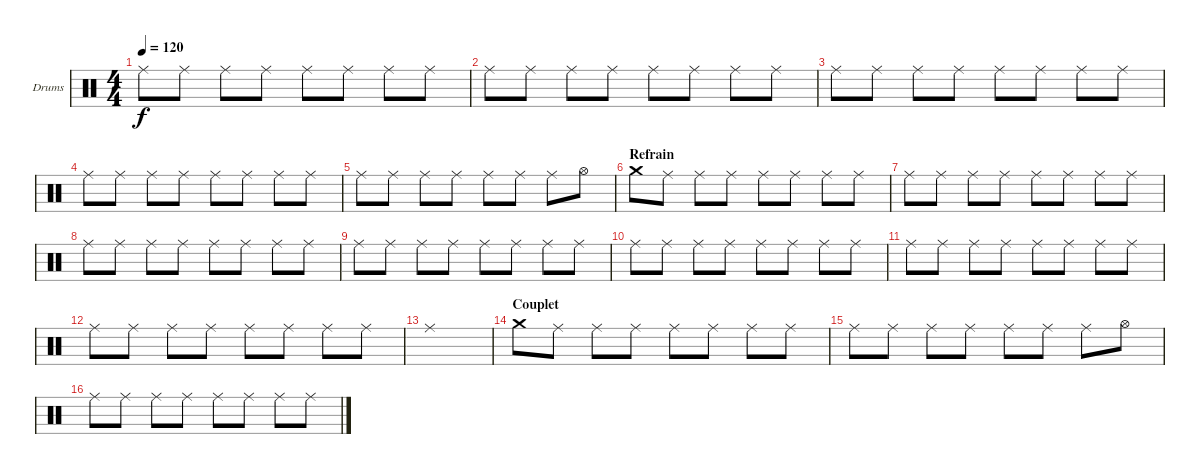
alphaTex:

\defaultSystemsLayout 4
\bracketExtendMode groupsimilarinstruments
\firstSystemTrackNameOrientation horizontal
\otherSystemsTrackNameOrientation horizontal
\track ("Drumkit" "Drums") {multiBarRest instrument percussion}
\staff {score}
\articulation defaults
\ts (4 4)
\tempo 120
\clef neutral
\ks c "Ride (middle)".8{dy f} "Ride (middle)".8 "Ride (middle)".8 "Ride (middle)".8 "Ride (middle)".8 "Ride (middle)".8 "Ride (middle)".8 "Ride (middle)".8
|
"Ride (middle)".8 "Ride (middle)".8 "Ride (middle)".8 "Ride (middle)".8 "Ride (middle)".8 "Ride (middle)".8 "Ride (middle)".8 "Ride (middle)".8 |
"Ride (middle)".8 "Ride (middle)".8 "Ride (middle)".8 "Ride (middle)".8 "Ride (middle)".8 "Ride (middle)".8 "Ride (middle)".8 "Ride (middle)".8 |
"Ride (middle)".8 "Ride (middle)".8 "Ride (middle)".8 "Ride (middle)".8 "Ride (middle)".8 "Ride (middle)".8 "Ride (middle)".8 "Ride (middle)".8 |
"Ride (middle)".8 "Ride (middle)".8 "Ride (middle)".8 "Ride (middle)".8 "Ride (middle)".8 "Ride (middle)".8 "Ride (middle)".8 "Hi-Hat (open)".8 |
\section ("" "Refrain")
"Crash medium (hit)".8 "Ride (middle)".8 "Ride (middle)".8 "Ride (middle)".8 "Ride (middle)".8 "Ride (middle)".8 "Ride (middle)".8 "Ride (middle)".8 |
"Ride (middle)".8 "Ride (middle)".8 "Ride (middle)".8 "Ride (middle)".8 "Ride (middle)".8 "Ride (middle)".8 "Ride (middle)".8 "Ride (middle)".8 |
"Ride (middle)".8 "Ride (middle)".8 "Ride (middle)".8 "Ride (middle)".8 "Ride (middle)".8 "Ride (middle)".8 "Ride (middle)".8 "Ride (middle)".8 |
"Ride (middle)".8 "Ride (middle)".8 "Ride (middle)".8 "Ride (middle)".8 "Ride (middle)".8 "Ride (middle)".8 "Ride (middle)".8 "Ride (middle)".8 |
"Ride (middle)".8 "Ride (middle)".8 "Ride (middle)".8 "Ride (middle)".8 "Ride (middle)".8 "Ride (middle)".8 "Ride (middle)".8 "Ride (middle)".8 |
"Ride (middle)".8 "Ride (middle)".8 "Ride (middle)".8 "Ride (middle)".8 "Ride (middle)".8 "Ride (middle)".8 "Ride (middle)".8 "Ride (middle)".8 |
"Ride (middle)".8 "Ride (middle)".8 "Ride (middle)".8 "Ride (middle)".8 "Ride (middle)".8 "Ride (middle)".8 "Ride (middle)".8 "Ride (middle)".8 |
"Ride (middle)".1 |
\section ("" "Couplet")
"Crash medium (hit)".8 "Ride (middle)".8 "Ride (middle)".8 "Ride (middle)".8 "Ride (middle)".8 "Ride (middle)".8 "Ride (middle)".8 "Ride (middle)".8 |
"Ride (middle)".8 "Ride (middle)".8 "Ride (middle)".8 "Ride (middle)".8 "Ride (middle)".8 "Ride (middle)".8 "Ride (middle)".8 "Hi-Hat (open)".8 |
"Ride (middle)".8 "Ride (middle)".8 "Ride (middle)".8 "Ride (middle)".8 "Ride (middle)".8 "Ride (middle)".8 "Ride (middle)".8 "Ride (middle)".8
